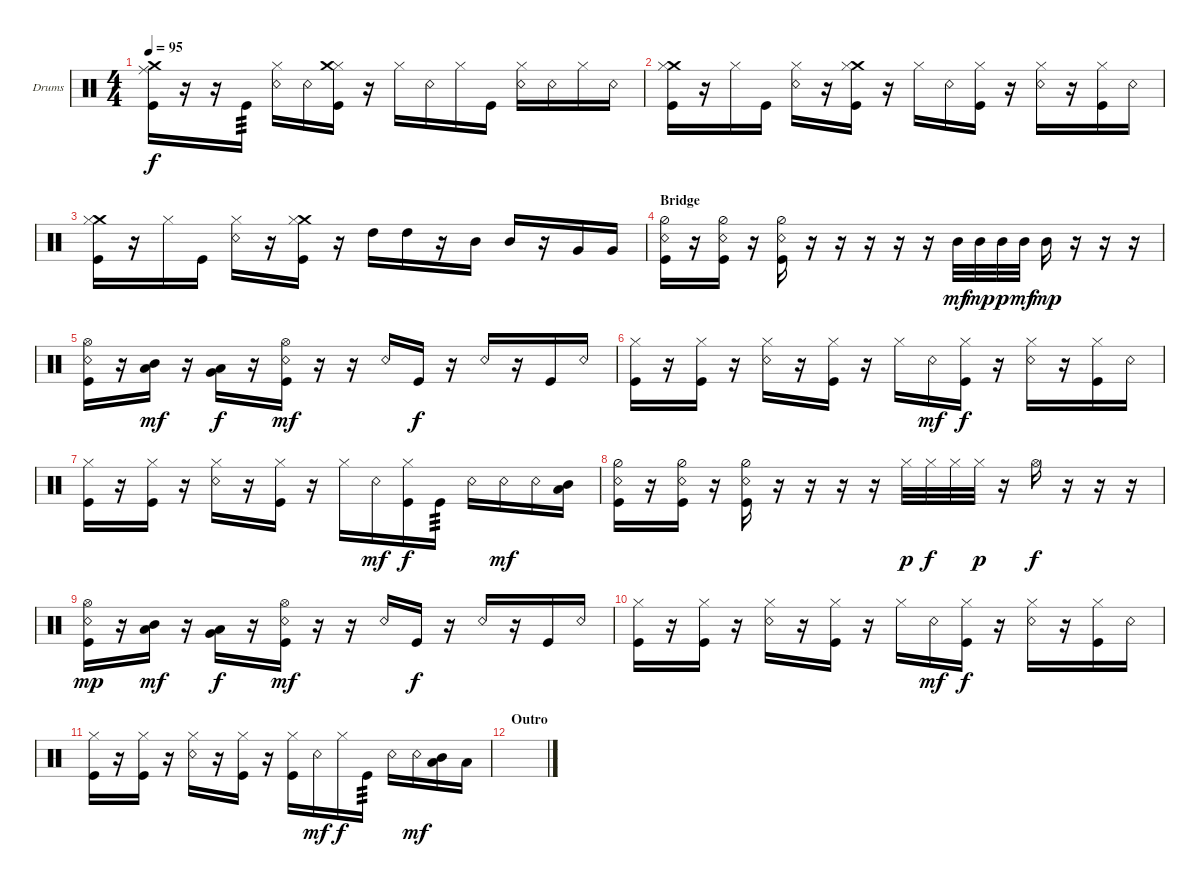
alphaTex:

\defaultSystemsLayout 4
\bracketExtendMode groupsimilarinstruments
\firstSystemTrackNameOrientation horizontal
\otherSystemsTrackNameOrientation horizontal
\track ("Drum [Tomoya]" "Drums") {instrument percussion}
\staff {score}
\articulation defaults
\ts (4 4)
\tempo 95
\clef neutral
\ks c
("Kick (hit)" "Crash medium (hit)" "Ride (middle)").16{dy f} r.16 r.16 "Kick (hit)".16{tp 3} ("Snare (rim shot)" "Hi-Hat (closed)").16 "Snare (rim shot)".16 ("Kick (hit)" "Hi-Hat (closed)" "Crash medium (hit)").16 r.16 "Hi-Hat (closed)".16 "Snare (rim shot)".16 "Hi-Hat (closed)".16 "Kick (hit)".16 ("Snare (rim shot)" "Hi-Hat (closed)").16 "Snare (rim shot)".16 "Hi-Hat (closed)".16 "Snare (rim shot)".16 |
("Kick (hit)" "Crash medium (hit)" "Hi-Hat (closed)").16 r.16 "Hi-Hat (closed)".16 "Kick (hit)".16 ("Snare (rim shot)" "Hi-Hat (closed)").16 r.16 ("Kick (hit)" "Crash medium (hit)" "Hi-Hat (closed)").16 r.16 "Hi-Hat (closed)".16 "Snare (rim shot)".16 ("Hi-Hat (closed)" "Kick (hit)").16 r.16 ("Snare (rim shot)" "Hi-Hat (closed)").16 r.16 ("Hi-Hat (closed)" "Kick (hit)").16 "Snare (rim shot)".16 |
("Kick (hit)" "Crash medium (hit)" "Hi-Hat (closed)").16 r.16 "Hi-Hat (closed)".16 "Kick (hit)".16 ("Snare (rim shot)" "Hi-Hat (closed)").16 r.16 ("Kick (hit)" "Crash medium (hit)" "Hi-Hat (closed)").16 r.16 "High Tom (hit)".16 "High Tom (hit)".16 r.16 "Mid Tom (hit)".16 "Mid Tom (hit)".16 r.16 "Very Low Tom (hit)".16 "Very Low Tom (hit)".16 |
\section ("" "Bridge")
("Kick (hit)" "Hi-Hat (half)" "Snare (rim shot)").16 r.16 ("Kick (hit)" "Hi-Hat (half)" "Snare (rim shot)").16 r.16 ("Kick (hit)" "Hi-Hat (half)" "Snare (rim shot)").16 r.16 r.16 r.16 r.16 r.16 "Mid Tom (hit)".32{dy mf} "Mid Tom (hit)".32{dy mp} "Mid Tom (hit)".32{dy p} "Mid Tom (hit)".32{dy mf} "Mid Tom (hit)".16{dy mp} r.16 r.16 r.16 |
("Snare (rim shot)" "Kick (hit)" "Hi-Hat (open)").16 r.16 ("Mid Tom (hit)" "Low Tom (hit)").16{dy mf} r.16 ("Low Tom (hit)" "Very Low Tom (hit)").16{dy f} r.16 ("Snare (rim shot)" "Kick (hit)" "Hi-Hat (open)").16{dy mf} r.16 r.16 "Snare (rim shot)".16 "Kick (hit)".16{dy f} r.16 "Snare (rim shot)".16 r.16 "Kick (hit)".16 "Snare (rim shot)".16 |
("Kick (hit)" "Hi-Hat (closed)").16 r.16 ("Kick (hit)" "Hi-Hat (closed)").16 r.16 ("Snare (rim shot)" "Hi-Hat (closed)").16 r.16 ("Kick (hit)" "Hi-Hat (closed)").16 r.16 "Hi-Hat (closed)".16 "Snare (rim shot)".16{dy mf} ("Kick (hit)" "Hi-Hat (closed)").16{dy f} r.16 ("Snare (rim shot)" "Hi-Hat (closed)").16 r.16 ("Kick (hit)" "Hi-Hat (closed)").16 "Snare (rim shot)".16 |
("Kick (hit)" "Hi-Hat (closed)").16 r.16 ("Kick (hit)" "Hi-Hat (closed)").16 r.16 ("Snare (rim shot)" "Hi-Hat (closed)").16 r.16 ("Kick (hit)" "Hi-Hat (closed)").16 r.16 "Hi-Hat (closed)".16 "Snare (rim shot)".16{dy mf} ("Kick (hit)" "Hi-Hat (closed)").16{dy f} "Kick (hit)".16{tp 3} "Snare (rim shot)".16 "Snare (rim shot)".16{dy mf} "Snare (rim shot)".16 ("Mid Tom (hit)" "Low Tom (hit)").16 |
("Kick (hit)" "Hi-Hat (half)" "Snare (rim shot)").16 r.16 ("Kick (hit)" "Hi-Hat (half)" "Snare (rim shot)").16 r.16 ("Kick (hit)" "Hi-Hat (half)" "Snare (rim shot)").16 r.16 r.16 r.16 r.16 "Hi-Hat (closed)".32{dy p} "Hi-Hat (closed)".32{dy f} "Hi-Hat (closed)".32 "Hi-Hat (closed)".32{dy p} r.16 "Hi-Hat (open)".16{dy f} r.16 r.16 r.16 |
("Snare (rim shot)" "Kick (hit)" "Hi-Hat (open)").16{dy mp} r.16 ("Mid Tom (hit)" "Low Tom (hit)").16{dy mf} r.16 ("Low Tom (hit)" "Very Low Tom (hit)").16{dy f} r.16 ("Snare (rim shot)" "Kick (hit)" "Hi-Hat (open)").16{dy mf} r.16 r.16 "Snare (rim shot)".16 "Kick (hit)".16{dy f} r.16 "Snare (rim shot)".16 r.16 "Kick (hit)".16 "Snare (rim shot)".16 |
("Kick (hit)" "Hi-Hat (closed)").16 r.16 ("Kick (hit)" "Hi-Hat (closed)").16 r.16 ("Snare (rim shot)" "Hi-Hat (closed)").16 r.16 ("Kick (hit)" "Hi-Hat (closed)").16 r.16 "Hi-Hat (closed)".16 "Snare (rim shot)".16{dy mf} ("Kick (hit)" "Hi-Hat (closed)").16{dy f} r.16 ("Snare (rim shot)" "Hi-Hat (closed)").16 r.16 ("Kick (hit)" "Hi-Hat (closed)").16 "Snare (rim shot)".16 |
("Kick (hit)" "Hi-Hat (closed)").16 r.16 ("Kick (hit)" "Hi-Hat (closed)").16 r.16 ("Snare (rim shot)" "Hi-Hat (closed)").16 r.16 ("Kick (hit)" "Hi-Hat (closed)").16 r.16 ("Kick (hit)" "Hi-Hat (closed)").16 "Snare (rim shot)".16{dy mf} "Hi-Hat (closed)".16{dy f} "Kick (hit)".16{tp 3} "Snare (rim shot)".16 "Snare (rim shot)".16{dy mf} ("Mid Tom (hit)" "Low Tom (hit)").16 "Low Tom (hit)".16 |
\section ("" "Outro")
